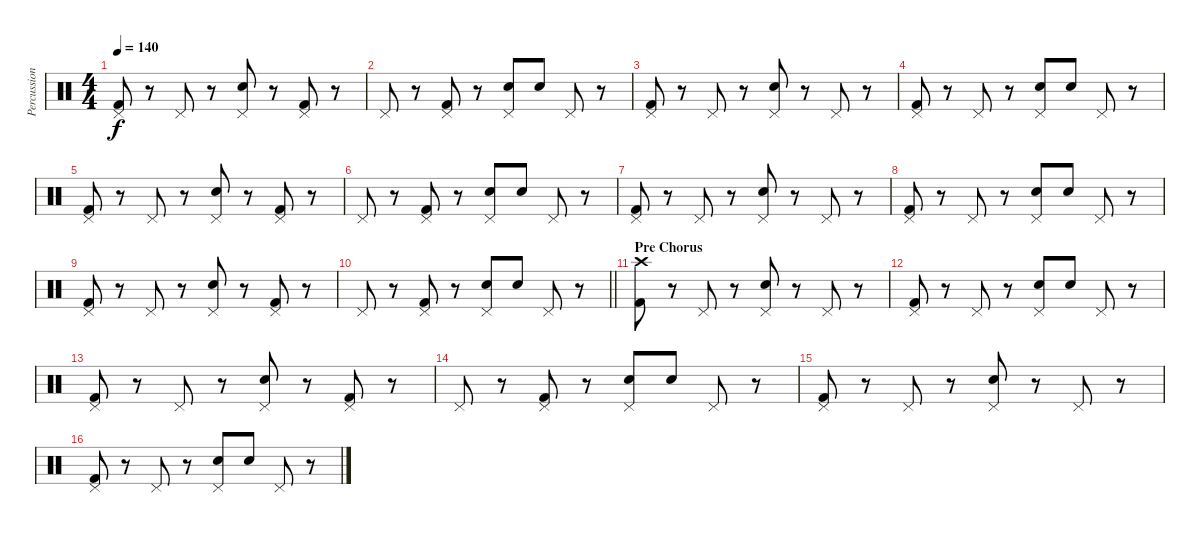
\track ("Percussion" "Percussion") {instrument percussion}
\staff {score}
\articulation defaults
\ts (4 4)
\tempo 140
\clef neutral
\ks c
("Pedal Hi-Hat (hit)" "Kick (hit) 2").8{dy f} r.8 "Pedal Hi-Hat (hit)".8 r.8 ("Pedal Hi-Hat (hit)" "Snare (hit) 2").8 r.8 ("Pedal Hi-Hat (hit)" "Kick (hit) 2").8 r.8 |
"Pedal Hi-Hat (hit)".8 r.8 ("Pedal Hi-Hat (hit)" "Kick (hit) 2").8 r.8 ("Pedal Hi-Hat (hit)" "Snare (hit) 2").8 "Snare (hit) 2".8 "Pedal Hi-Hat (hit)".8 r.8 |
("Pedal Hi-Hat (hit)" "Kick (hit) 2").8 r.8 "Pedal Hi-Hat (hit)".8 r.8 ("Pedal Hi-Hat (hit)" "Snare (hit) 2").8 r.8 "Pedal Hi-Hat (hit)".8 r.8 |
("Pedal Hi-Hat (hit)" "Kick (hit) 2").8 r.8 "Pedal Hi-Hat (hit)".8 r.8 ("Pedal Hi-Hat (hit)" "Snare (hit) 2").8 "Snare (hit) 2".8 "Pedal Hi-Hat (hit)".8 r.8 |
("Pedal Hi-Hat (hit)" "Kick (hit) 2").8 r.8 "Pedal Hi-Hat (hit)".8 r.8 ("Pedal Hi-Hat (hit)" "Snare (hit) 2").8 r.8 ("Pedal Hi-Hat (hit)" "Kick (hit) 2").8 r.8 |
"Pedal Hi-Hat (hit)".8 r.8 ("Pedal Hi-Hat (hit)" "Kick (hit) 2").8 r.8 ("Pedal Hi-Hat (hit)" "Snare (hit) 2").8 "Snare (hit) 2".8 "Pedal Hi-Hat (hit)".8 r.8 |
("Pedal Hi-Hat (hit)" "Kick (hit) 2").8 r.8 "Pedal Hi-Hat (hit)".8 r.8 ("Pedal Hi-Hat (hit)" "Snare (hit) 2").8 r.8 "Pedal Hi-Hat (hit)".8 r.8 |
("Pedal Hi-Hat (hit)" "Kick (hit) 2").8 r.8 "Pedal Hi-Hat (hit)".8 r.8 ("Pedal Hi-Hat (hit)" "Snare (hit) 2").8 "Snare (hit) 2".8 "Pedal Hi-Hat (hit)".8 r.8 |
("Pedal Hi-Hat (hit)" "Kick (hit) 2").8 r.8 "Pedal Hi-Hat (hit)".8 r.8 ("Pedal Hi-Hat (hit)" "Snare (hit) 2").8 r.8 ("Pedal Hi-Hat (hit)" "Kick (hit) 2").8 r.8 |
\barLineRight lightlight "Pedal Hi-Hat (hit)".8
r.8 ("Pedal Hi-Hat (hit)" "Kick (hit) 2").8 r.8 ("Pedal Hi-Hat (hit)" "Snare (hit) 2").8 "Snare (hit) 2".8 "Pedal Hi-Hat (hit)".8 r.8 |
\section ("" "Pre Chorus")
("Crash high (hit)" "Kick (hit) 2").8 r.8 "Pedal Hi-Hat (hit)".8 r.8 ("Pedal Hi-Hat (hit)" "Snare (hit) 2").8 r.8 "Pedal Hi-Hat (hit)".8 r.8 |
("Pedal Hi-Hat (hit)" "Kick (hit) 2").8 r.8 "Pedal Hi-Hat (hit)".8 r.8 ("Pedal Hi-Hat (hit)" "Snare (hit) 2").8 "Snare (hit) 2".8 "Pedal Hi-Hat (hit)".8 r.8 |
("Pedal Hi-Hat (hit)" "Kick (hit) 2").8 r.8 "Pedal Hi-Hat (hit)".8 r.8 ("Pedal Hi-Hat (hit)" "Snare (hit) 2").8 r.8 ("Pedal Hi-Hat (hit)" "Kick (hit) 2").8 r.8 |
"Pedal Hi-Hat (hit)".8 r.8 ("Pedal Hi-Hat (hit)" "Kick (hit) 2").8 r.8 ("Pedal Hi-Hat (hit)" "Snare (hit) 2").8 "Snare (hit) 2".8 "Pedal Hi-Hat (hit)".8 r.8 |
("Pedal Hi-Hat (hit)" "Kick (hit) 2").8 r.8 "Pedal Hi-Hat (hit)".8 r.8 ("Pedal Hi-Hat (hit)" "Snare (hit) 2").8 r.8 "Pedal Hi-Hat (hit)".8 r.8 |
("Pedal Hi-Hat (hit)" "Kick (hit) 2").8 r.8 "Pedal Hi-Hat (hit)".8 r.8 ("Pedal Hi-Hat (hit)" "Snare (hit) 2").8 "Snare (hit) 2".8 "Pedal Hi-Hat (hit)".8 r.8
